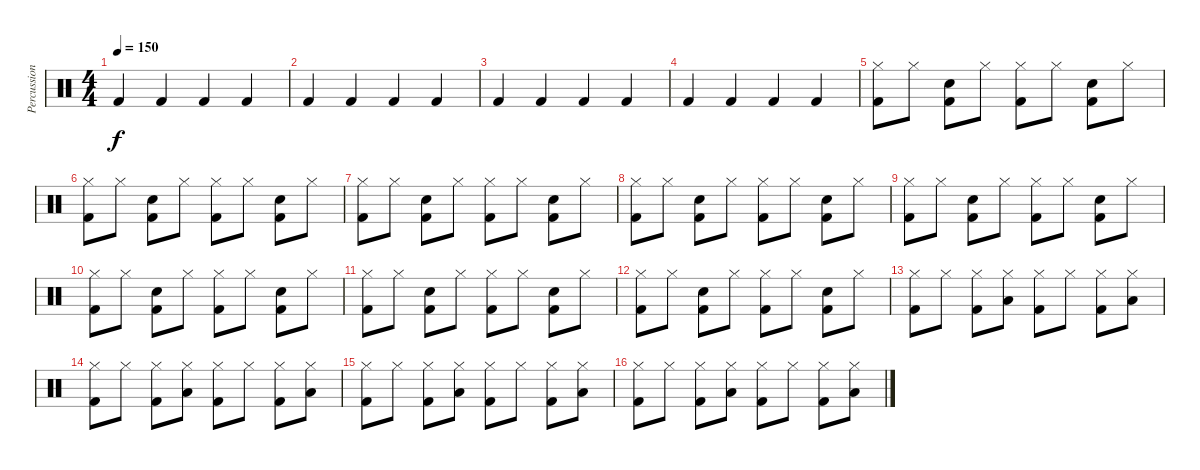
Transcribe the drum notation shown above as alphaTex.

\track ("Percussion" "Percussion") {instrument percussion}
\staff {score}
\articulation defaults
\ts (4 4)
\tempo 150
\clef neutral
\ks c "Kick (hit) 2".4{dy f} "Kick (hit) 2".4 "Kick (hit) 2".4 "Kick (hit) 2".4
|
"Kick (hit) 2".4 "Kick (hit) 2".4 "Kick (hit) 2".4 "Kick (hit) 2".4 |
"Kick (hit) 2".4 "Kick (hit) 2".4 "Kick (hit) 2".4 "Kick (hit) 2".4 |
"Kick (hit) 2".4 "Kick (hit) 2".4 "Kick (hit) 2".4 "Kick (hit) 2".4 |
("Hi-Hat (closed)" "Kick (hit) 2").8 "Hi-Hat (closed)".8 ("Snare (hit) 2" "Kick (hit) 2").8 "Hi-Hat (closed)".8 ("Hi-Hat (closed)" "Kick (hit) 2").8 "Hi-Hat (closed)".8 ("Snare (hit) 2" "Kick (hit) 2").8 "Hi-Hat (closed)".8 |
("Hi-Hat (closed)" "Kick (hit) 2").8 "Hi-Hat (closed)".8 ("Snare (hit) 2" "Kick (hit) 2").8 "Hi-Hat (closed)".8 ("Hi-Hat (closed)" "Kick (hit) 2").8 "Hi-Hat (closed)".8 ("Snare (hit) 2" "Kick (hit) 2").8 "Hi-Hat (closed)".8 |
("Hi-Hat (closed)" "Kick (hit) 2").8 "Hi-Hat (closed)".8 ("Snare (hit) 2" "Kick (hit) 2").8 "Hi-Hat (closed)".8 ("Hi-Hat (closed)" "Kick (hit) 2").8 "Hi-Hat (closed)".8 ("Snare (hit) 2" "Kick (hit) 2").8 "Hi-Hat (closed)".8 |
("Hi-Hat (closed)" "Kick (hit) 2").8 "Hi-Hat (closed)".8 ("Snare (hit) 2" "Kick (hit) 2").8 "Hi-Hat (closed)".8 ("Hi-Hat (closed)" "Kick (hit) 2").8 "Hi-Hat (closed)".8 ("Snare (hit) 2" "Kick (hit) 2").8 "Hi-Hat (closed)".8 |
("Hi-Hat (closed)" "Kick (hit) 2").8 "Hi-Hat (closed)".8 ("Snare (hit) 2" "Kick (hit) 2").8 "Hi-Hat (closed)".8 ("Hi-Hat (closed)" "Kick (hit) 2").8 "Hi-Hat (closed)".8 ("Snare (hit) 2" "Kick (hit) 2").8 "Hi-Hat (closed)".8 |
("Hi-Hat (closed)" "Kick (hit) 2").8 "Hi-Hat (closed)".8 ("Snare (hit) 2" "Kick (hit) 2").8 "Hi-Hat (closed)".8 ("Hi-Hat (closed)" "Kick (hit) 2").8 "Hi-Hat (closed)".8 ("Snare (hit) 2" "Kick (hit) 2").8 "Hi-Hat (closed)".8 |
("Hi-Hat (closed)" "Kick (hit) 2").8 "Hi-Hat (closed)".8 ("Snare (hit) 2" "Kick (hit) 2").8 "Hi-Hat (closed)".8 ("Hi-Hat (closed)" "Kick (hit) 2").8 "Hi-Hat (closed)".8 ("Snare (hit) 2" "Kick (hit) 2").8 "Hi-Hat (closed)".8 |
("Hi-Hat (closed)" "Kick (hit) 2").8 "Hi-Hat (closed)".8 ("Snare (hit) 2" "Kick (hit) 2").8 "Hi-Hat (closed)".8 ("Hi-Hat (closed)" "Kick (hit) 2").8 "Hi-Hat (closed)".8 ("Snare (hit) 2" "Kick (hit) 2").8 "Hi-Hat (closed)".8 |
("Hi-Hat (closed)" "Kick (hit) 2").8 "Hi-Hat (closed)".8 ("Hi-Hat (closed)" "Kick (hit) 2").8 ("Hi-Hat (closed)" "Low Floor Tom (hit)").8 ("Hi-Hat (closed)" "Kick (hit) 2").8 "Hi-Hat (closed)".8 ("Hi-Hat (closed)" "Kick (hit) 2").8 ("Hi-Hat (closed)" "Low Floor Tom (hit)").8 |
("Hi-Hat (closed)" "Kick (hit) 2").8 "Hi-Hat (closed)".8 ("Hi-Hat (closed)" "Kick (hit) 2").8 ("Hi-Hat (closed)" "Low Floor Tom (hit)").8 ("Hi-Hat (closed)" "Kick (hit) 2").8 "Hi-Hat (closed)".8 ("Hi-Hat (closed)" "Kick (hit) 2").8 ("Hi-Hat (closed)" "Low Floor Tom (hit)").8 |
("Hi-Hat (closed)" "Kick (hit) 2").8 "Hi-Hat (closed)".8 ("Hi-Hat (closed)" "Kick (hit) 2").8 ("Hi-Hat (closed)" "Low Floor Tom (hit)").8 ("Hi-Hat (closed)" "Kick (hit) 2").8 "Hi-Hat (closed)".8 ("Hi-Hat (closed)" "Kick (hit) 2").8 ("Hi-Hat (closed)" "Low Floor Tom (hit)").8 |
("Hi-Hat (closed)" "Kick (hit) 2").8 "Hi-Hat (closed)".8 ("Hi-Hat (closed)" "Kick (hit) 2").8 ("Hi-Hat (closed)" "Low Floor Tom (hit)").8 ("Hi-Hat (closed)" "Kick (hit) 2").8 "Hi-Hat (closed)".8 ("Hi-Hat (closed)" "Kick (hit) 2").8 ("Hi-Hat (closed)" "Low Floor Tom (hit)").8
